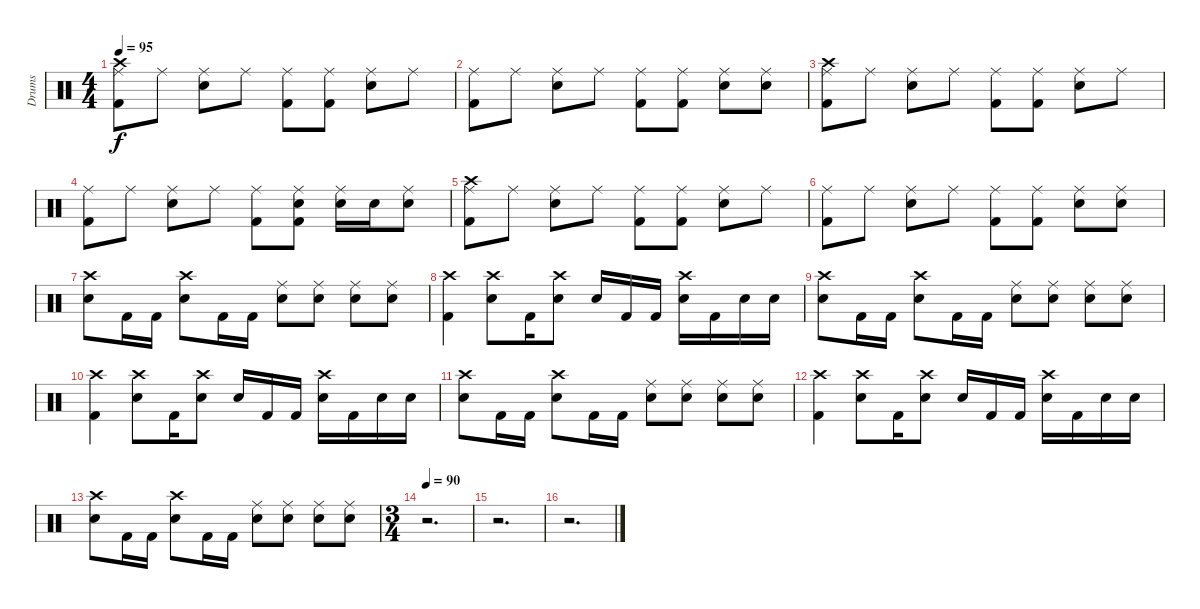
\track ("Drums" "Drums") {instrument percussion}
\staff {score}
\articulation defaults
\ts (4 4)
\tempo 95
\clef neutral
\ks c
("Ride (middle)" "Crash high (hit)" "Kick (hit) 2").8{dy f} "Ride (middle)".8 ("Ride (middle)" "Electric Snare (hit)").8 "Ride (middle)".8 ("Ride (middle)" "Kick (hit) 2").8 ("Ride (middle)" "Kick (hit) 2").8 ("Ride (middle)" "Electric Snare (hit)").8 "Ride (middle)".8 |
("Ride (middle)" "Kick (hit) 2").8 "Ride (middle)".8 ("Ride (middle)" "Electric Snare (hit)").8 "Ride (middle)".8 ("Ride (middle)" "Kick (hit) 2").8 ("Ride (middle)" "Kick (hit) 2").8 ("Ride (middle)" "Electric Snare (hit)").8 ("Ride (middle)" "Electric Snare (hit)").8 |
("Ride (middle)" "Crash high (hit)" "Kick (hit) 2").8 "Ride (middle)".8 ("Ride (middle)" "Electric Snare (hit)").8 "Ride (middle)".8 ("Ride (middle)" "Kick (hit) 2").8 ("Ride (middle)" "Kick (hit) 2").8 ("Ride (middle)" "Electric Snare (hit)").8 "Ride (middle)".8 |
("Ride (middle)" "Kick (hit) 2").8 "Ride (middle)".8 ("Ride (middle)" "Electric Snare (hit)").8 "Ride (middle)".8 ("Ride (middle)" "Kick (hit) 2").8 ("Electric Snare (hit)" "Ride (middle)" "Kick (hit) 2").8 ("Electric Snare (hit)" "Ride (middle)").16 "Electric Snare (hit)".16 ("Ride (middle)" "Electric Snare (hit)").8 |
("Ride (middle)" "Crash high (hit)" "Kick (hit) 2").8 "Ride (middle)".8 ("Ride (middle)" "Electric Snare (hit)").8 "Ride (middle)".8 ("Ride (middle)" "Kick (hit) 2").8 ("Ride (middle)" "Kick (hit) 2").8 ("Ride (middle)" "Electric Snare (hit)").8 "Ride (middle)".8 |
("Ride (middle)" "Kick (hit) 2").8 "Ride (middle)".8 ("Ride (middle)" "Electric Snare (hit)").8 "Ride (middle)".8 ("Ride (middle)" "Kick (hit) 2").8 ("Ride (middle)" "Kick (hit) 2").8 ("Ride (middle)" "Electric Snare (hit)").8 ("Ride (middle)" "Electric Snare (hit)").8 |
("Crash high (hit)" "Electric Snare (hit)").8 "Kick (hit) 2".16 "Kick (hit) 2".16 ("Crash high (hit)" "Electric Snare (hit)").8 "Kick (hit) 2".16 "Kick (hit) 2".16 ("Ride (middle)" "Electric Snare (hit)").8 ("Ride (middle)" "Electric Snare (hit)").8 ("Ride (middle)" "Electric Snare (hit)").8 ("Ride (middle)" "Electric Snare (hit)").8 |
("Crash high (hit)" "Kick (hit) 2").4 ("Crash high (hit)" "Electric Snare (hit)").8 "Kick (hit) 2".16 ("Crash high (hit)" "Electric Snare (hit)").8 "Electric Snare (hit)".16 "Kick (hit) 2".16 "Kick (hit) 2".16 ("Crash high (hit)" "Electric Snare (hit)").16 "Kick (hit) 2".16 "Electric Snare (hit)".16 "Electric Snare (hit)".16 |
("Crash high (hit)" "Electric Snare (hit)").8 "Kick (hit) 2".16 "Kick (hit) 2".16 ("Crash high (hit)" "Electric Snare (hit)").8 "Kick (hit) 2".16 "Kick (hit) 2".16 ("Ride (middle)" "Electric Snare (hit)").8 ("Ride (middle)" "Electric Snare (hit)").8 ("Ride (middle)" "Electric Snare (hit)").8 ("Ride (middle)" "Electric Snare (hit)").8 |
("Crash high (hit)" "Kick (hit) 2").4 ("Crash high (hit)" "Electric Snare (hit)").8 "Kick (hit) 2".16 ("Crash high (hit)" "Electric Snare (hit)").8 "Electric Snare (hit)".16 "Kick (hit) 2".16 "Kick (hit) 2".16 ("Crash high (hit)" "Electric Snare (hit)").16 "Kick (hit) 2".16 "Electric Snare (hit)".16 "Electric Snare (hit)".16 |
("Crash high (hit)" "Electric Snare (hit)").8 "Kick (hit) 2".16 "Kick (hit) 2".16 ("Crash high (hit)" "Electric Snare (hit)").8 "Kick (hit) 2".16 "Kick (hit) 2".16 ("Ride (middle)" "Electric Snare (hit)").8 ("Ride (middle)" "Electric Snare (hit)").8 ("Ride (middle)" "Electric Snare (hit)").8 ("Ride (middle)" "Electric Snare (hit)").8 |
("Crash high (hit)" "Kick (hit) 2").4 ("Crash high (hit)" "Electric Snare (hit)").8 "Kick (hit) 2".16 ("Crash high (hit)" "Electric Snare (hit)").8 "Electric Snare (hit)".16 "Kick (hit) 2".16 "Kick (hit) 2".16 ("Crash high (hit)" "Electric Snare (hit)").16 "Kick (hit) 2".16 "Electric Snare (hit)".16 "Electric Snare (hit)".16 |
("Crash high (hit)" "Electric Snare (hit)").8 "Kick (hit) 2".16 "Kick (hit) 2".16 ("Crash high (hit)" "Electric Snare (hit)").8 "Kick (hit) 2".16 "Kick (hit) 2".16 ("Ride (middle)" "Electric Snare (hit)").8 ("Ride (middle)" "Electric Snare (hit)").8 ("Ride (middle)" "Electric Snare (hit)").8 ("Ride (middle)" "Electric Snare (hit)").8 |
\ts (3 4)
\tempo 90
r.2{d} |
r.2{d} |
r.2{d}
